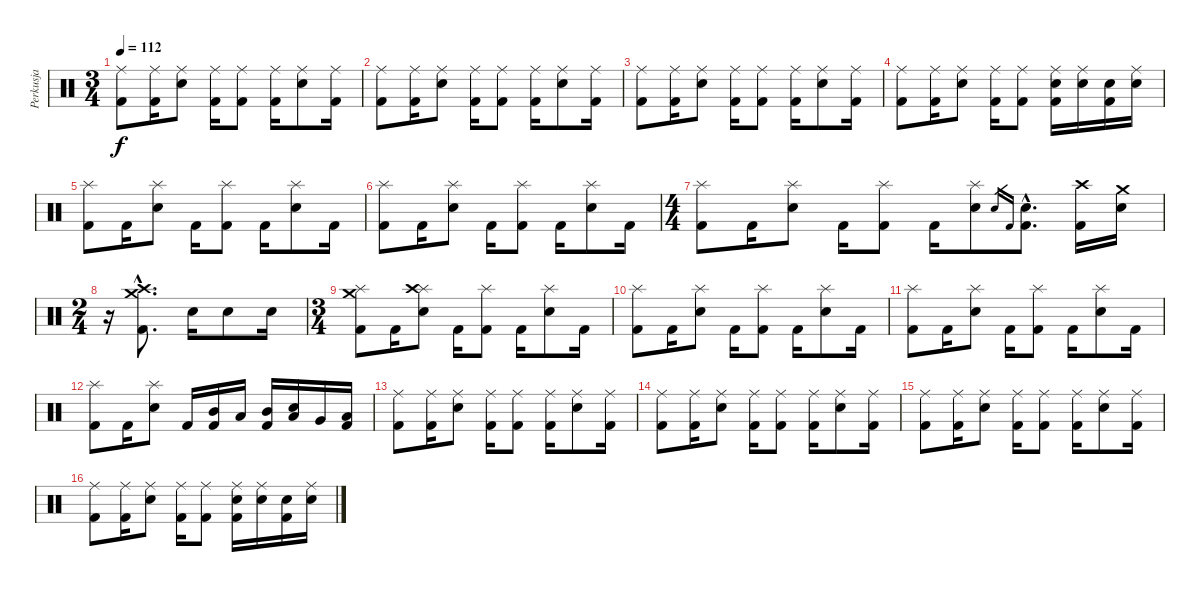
\track ("Perkusja" "Perkusja") {instrument percussion}
\staff {score}
\articulation defaults
\ts (3 4)
\tempo 112
\clef neutral
\ks c
("Ride (middle)" "Kick (hit) 2").8{dy f} ("Ride (middle)" "Kick (hit) 2").16 ("Ride (middle)" "Electric Snare (hit)").8 ("Ride (middle)" "Kick (hit) 2").16 ("Ride (middle)" "Kick (hit) 2").8 ("Ride (middle)" "Kick (hit) 2").16 ("Ride (middle)" "Electric Snare (hit)").8 ("Ride (middle)" "Kick (hit) 2").16 |
("Ride (middle)" "Kick (hit) 2").8 ("Ride (middle)" "Kick (hit) 2").16 ("Ride (middle)" "Electric Snare (hit)").8 ("Ride (middle)" "Kick (hit) 2").16 ("Ride (middle)" "Kick (hit) 2").8 ("Ride (middle)" "Kick (hit) 2").16 ("Ride (middle)" "Electric Snare (hit)").8 ("Ride (middle)" "Kick (hit) 2").16 |
("Ride (middle)" "Kick (hit) 2").8 ("Ride (middle)" "Kick (hit) 2").16 ("Ride (middle)" "Electric Snare (hit)").8 ("Ride (middle)" "Kick (hit) 2").16 ("Ride (middle)" "Kick (hit) 2").8 ("Ride (middle)" "Kick (hit) 2").16 ("Ride (middle)" "Electric Snare (hit)").8 ("Ride (middle)" "Kick (hit) 2").16 |
("Ride (middle)" "Kick (hit) 2").8 ("Ride (middle)" "Kick (hit) 2").16 ("Ride (middle)" "Electric Snare (hit)").8 ("Ride (middle)" "Kick (hit) 2").16 ("Ride (middle)" "Kick (hit) 2").8 ("Ride (middle)" "Electric Snare (hit)" "Kick (hit) 2").16 ("Ride (middle)" "Electric Snare (hit)").16 ("Electric Snare (hit)" "Kick (hit) 2").16 ("Ride (middle)" "Electric Snare (hit)").16 |
("Splash (hit)" "Kick (hit) 2").8 "Kick (hit) 2".16 ("Splash (hit)" "Electric Snare (hit)").8 "Kick (hit) 2".16 ("Splash (hit)" "Kick (hit) 2").8 "Kick (hit) 2".16 ("Splash (hit)" "Electric Snare (hit)").8 "Kick (hit) 2".16 |
("Splash (hit)" "Kick (hit) 2").8 "Kick (hit) 2".16 ("Splash (hit)" "Electric Snare (hit)").8 "Kick (hit) 2".16 ("Splash (hit)" "Kick (hit) 2").8 "Kick (hit) 2".16 ("Splash (hit)" "Electric Snare (hit)").8 "Kick (hit) 2".16 |
\ts (4 4)
("Splash (hit)" "Kick (hit) 2").8 "Kick (hit) 2".16 ("Splash (hit)" "Electric Snare (hit)").8 "Kick (hit) 2".16 ("Splash (hit)" "Kick (hit) 2").8 "Kick (hit) 2".16 ("Splash (hit)" "Electric Snare (hit)").8 "Electric Snare (hit)".16{gr} "Kick (hit) 2".16{gr} ("Electric Snare (hit)"{hac} "Kick (hit) 2"{hac}).8{d} ("Crash high (hit)" "Kick (hit) 2").16 ("Crash medium (hit)" "Electric Snare (hit)").16 |
\ts (2 4)
r.16 ("Crash high (hit)"{hac} "Crash medium (hit)"{hac} "Kick (hit) 2"{hac}).8{d} "Electric Snare (hit)".16 "Electric Snare (hit)".8 "Electric Snare (hit)".16 |
\ts (3 4)
("Splash (hit)" "Crash medium (hit)" "Kick (hit) 2").8 "Kick (hit) 2".16 ("Splash (hit)" "Crash high (hit)" "Electric Snare (hit)").8 "Kick (hit) 2".16 ("Splash (hit)" "Kick (hit) 2").8 "Kick (hit) 2".16 ("Splash (hit)" "Electric Snare (hit)").8 "Kick (hit) 2".16 |
("Splash (hit)" "Kick (hit) 2").8 "Kick (hit) 2".16 ("Splash (hit)" "Electric Snare (hit)").8 "Kick (hit) 2".16 ("Splash (hit)" "Kick (hit) 2").8 "Kick (hit) 2".16 ("Splash (hit)" "Electric Snare (hit)").8 "Kick (hit) 2".16 |
("Splash (hit)" "Kick (hit) 2").8 "Kick (hit) 2".16 ("Splash (hit)" "Electric Snare (hit)").8 "Kick (hit) 2".16 ("Splash (hit)" "Kick (hit) 2").8 "Kick (hit) 2".16 ("Splash (hit)" "Electric Snare (hit)").8 "Kick (hit) 2".16 |
("Splash (hit)" "Kick (hit) 2").8 "Kick (hit) 2".16 ("Splash (hit)" "Electric Snare (hit)").8 "Kick (hit) 2".16 ("Mid Tom (hit)" "Kick (hit) 2").16 "Low Tom (hit)".16 ("Mid Tom (hit)" "Kick (hit) 2").16 ("Low Tom (hit)" "Electric Snare (hit)").16 "Very Low Tom (hit)".16 ("Low Floor Tom (hit)" "Kick (hit) 2").16 |
("Ride (middle)" "Kick (hit) 2").8 ("Ride (middle)" "Kick (hit) 2").16 ("Ride (middle)" "Electric Snare (hit)").8 ("Ride (middle)" "Kick (hit) 2").16 ("Ride (middle)" "Kick (hit) 2").8 ("Ride (middle)" "Kick (hit) 2").16 ("Ride (middle)" "Electric Snare (hit)").8 ("Ride (middle)" "Kick (hit) 2").16 |
("Ride (middle)" "Kick (hit) 2").8 ("Ride (middle)" "Kick (hit) 2").16 ("Ride (middle)" "Electric Snare (hit)").8 ("Ride (middle)" "Kick (hit) 2").16 ("Ride (middle)" "Kick (hit) 2").8 ("Ride (middle)" "Kick (hit) 2").16 ("Ride (middle)" "Electric Snare (hit)").8 ("Ride (middle)" "Kick (hit) 2").16 |
("Ride (middle)" "Kick (hit) 2").8 ("Ride (middle)" "Kick (hit) 2").16 ("Ride (middle)" "Electric Snare (hit)").8 ("Ride (middle)" "Kick (hit) 2").16 ("Ride (middle)" "Kick (hit) 2").8 ("Ride (middle)" "Kick (hit) 2").16 ("Ride (middle)" "Electric Snare (hit)").8 ("Ride (middle)" "Kick (hit) 2").16 |
("Ride (middle)" "Kick (hit) 2").8 ("Ride (middle)" "Kick (hit) 2").16 ("Ride (middle)" "Electric Snare (hit)").8 ("Ride (middle)" "Kick (hit) 2").16 ("Ride (middle)" "Kick (hit) 2").8 ("Ride (middle)" "Electric Snare (hit)" "Kick (hit) 2").16 ("Ride (middle)" "Electric Snare (hit)").16 ("Electric Snare (hit)" "Kick (hit) 2").16 ("Ride (middle)" "Electric Snare (hit)").16
